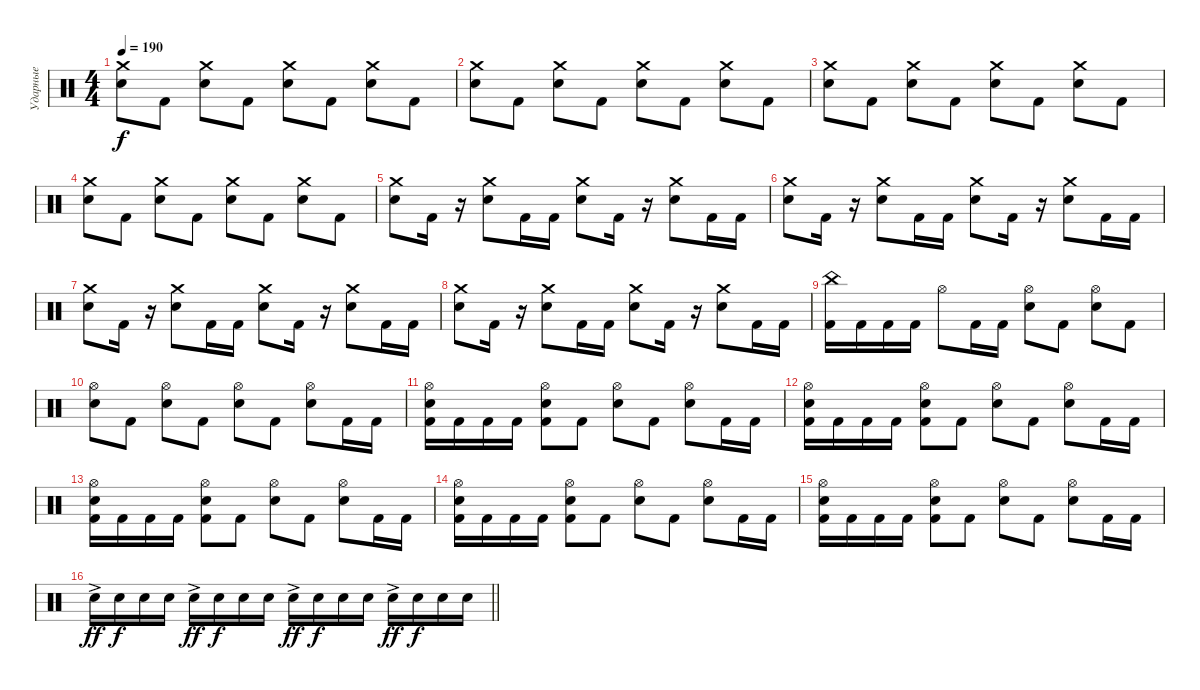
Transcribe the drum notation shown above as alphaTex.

\track ("Ударные" "Ударные") {instrument percussion}
\staff {score}
\articulation defaults
\ts (4 4)
\tempo 190
\clef neutral
\ks c
("Crash medium (hit)" "Snare (hit) 2").8{dy f} "Kick (hit) 2".8 ("Crash medium (hit)" "Snare (hit) 2").8 "Kick (hit) 2".8 ("Crash medium (hit)" "Snare (hit) 2").8 "Kick (hit) 2".8 ("Crash medium (hit)" "Snare (hit) 2").8 "Kick (hit) 2".8 |
("Crash medium (hit)" "Snare (hit) 2").8 "Kick (hit) 2".8 ("Crash medium (hit)" "Snare (hit) 2").8 "Kick (hit) 2".8 ("Crash medium (hit)" "Snare (hit) 2").8 "Kick (hit) 2".8 ("Crash medium (hit)" "Snare (hit) 2").8 "Kick (hit) 2".8 |
("Crash medium (hit)" "Snare (hit) 2").8 "Kick (hit) 2".8 ("Crash medium (hit)" "Snare (hit) 2").8 "Kick (hit) 2".8 ("Crash medium (hit)" "Snare (hit) 2").8 "Kick (hit) 2".8 ("Crash medium (hit)" "Snare (hit) 2").8 "Kick (hit) 2".8 |
("Crash medium (hit)" "Snare (hit) 2").8 "Kick (hit) 2".8 ("Crash medium (hit)" "Snare (hit) 2").8 "Kick (hit) 2".8 ("Crash medium (hit)" "Snare (hit) 2").8 "Kick (hit) 2".8 ("Crash medium (hit)" "Snare (hit) 2").8 "Kick (hit) 2".8 |
("Crash medium (hit)" "Snare (hit) 2").8 "Kick (hit) 2".16 r.16 ("Crash medium (hit)" "Snare (hit) 2").8 "Kick (hit) 2".16 "Kick (hit) 2".16 ("Crash medium (hit)" "Snare (hit) 2").8 "Kick (hit) 2".16 r.16 ("Crash medium (hit)" "Snare (hit) 2").8 "Kick (hit) 2".16 "Kick (hit) 2".16 |
("Crash medium (hit)" "Snare (hit) 2").8 "Kick (hit) 2".16 r.16 ("Crash medium (hit)" "Snare (hit) 2").8 "Kick (hit) 2".16 "Kick (hit) 2".16 ("Crash medium (hit)" "Snare (hit) 2").8 "Kick (hit) 2".16 r.16 ("Crash medium (hit)" "Snare (hit) 2").8 "Kick (hit) 2".16 "Kick (hit) 2".16 |
("Crash medium (hit)" "Snare (hit) 2").8 "Kick (hit) 2".16 r.16 ("Crash medium (hit)" "Snare (hit) 2").8 "Kick (hit) 2".16 "Kick (hit) 2".16 ("Crash medium (hit)" "Snare (hit) 2").8 "Kick (hit) 2".16 r.16 ("Crash medium (hit)" "Snare (hit) 2").8 "Kick (hit) 2".16 "Kick (hit) 2".16 |
("Crash medium (hit)" "Snare (hit) 2").8 "Kick (hit) 2".16 r.16 ("Crash medium (hit)" "Snare (hit) 2").8 "Kick (hit) 2".16 "Kick (hit) 2".16 ("Crash medium (hit)" "Snare (hit) 2").8 "Kick (hit) 2".16 r.16 ("Crash medium (hit)" "Snare (hit) 2").8 "Kick (hit) 2".16 "Kick (hit) 2".16 |
("China (hit)" "Kick (hit) 2").16 "Kick (hit) 2".16 "Kick (hit) 2".16 "Kick (hit) 2".16 "Hi-Hat (open)".8 "Kick (hit) 2".16 "Kick (hit) 2".16 ("Hi-Hat (open)" "Snare (hit) 2").8 "Kick (hit) 2".8 ("Hi-Hat (open)" "Snare (hit) 2").8 "Kick (hit) 2".8 |
("Hi-Hat (open)" "Snare (hit) 2").8 "Kick (hit) 2".8 ("Hi-Hat (open)" "Snare (hit) 2").8 "Kick (hit) 2".8 ("Hi-Hat (open)" "Snare (hit) 2").8 "Kick (hit) 2".8 ("Hi-Hat (open)" "Snare (hit) 2").8 "Kick (hit) 2".16 "Kick (hit) 2".16 |
("Hi-Hat (open)" "Snare (hit) 2" "Kick (hit) 2").16 "Kick (hit) 2".16 "Kick (hit) 2".16 "Kick (hit) 2".16 ("Hi-Hat (open)" "Snare (hit) 2" "Kick (hit) 2").8 "Kick (hit) 2".8 ("Hi-Hat (open)" "Snare (hit) 2").8 "Kick (hit) 2".8 ("Hi-Hat (open)" "Snare (hit) 2").8 "Kick (hit) 2".16 "Kick (hit) 2".16 |
("Hi-Hat (open)" "Snare (hit) 2" "Kick (hit) 2").16 "Kick (hit) 2".16 "Kick (hit) 2".16 "Kick (hit) 2".16 ("Hi-Hat (open)" "Snare (hit) 2" "Kick (hit) 2").8 "Kick (hit) 2".8 ("Hi-Hat (open)" "Snare (hit) 2").8 "Kick (hit) 2".8 ("Hi-Hat (open)" "Snare (hit) 2").8 "Kick (hit) 2".16 "Kick (hit) 2".16 |
("Hi-Hat (open)" "Snare (hit) 2" "Kick (hit) 2").16 "Kick (hit) 2".16 "Kick (hit) 2".16 "Kick (hit) 2".16 ("Hi-Hat (open)" "Snare (hit) 2" "Kick (hit) 2").8 "Kick (hit) 2".8 ("Hi-Hat (open)" "Snare (hit) 2").8 "Kick (hit) 2".8 ("Hi-Hat (open)" "Snare (hit) 2").8 "Kick (hit) 2".16 "Kick (hit) 2".16 |
("Hi-Hat (open)" "Snare (hit) 2" "Kick (hit) 2").16 "Kick (hit) 2".16 "Kick (hit) 2".16 "Kick (hit) 2".16 ("Hi-Hat (open)" "Snare (hit) 2" "Kick (hit) 2").8 "Kick (hit) 2".8 ("Hi-Hat (open)" "Snare (hit) 2").8 "Kick (hit) 2".8 ("Hi-Hat (open)" "Snare (hit) 2").8 "Kick (hit) 2".16 "Kick (hit) 2".16 |
("Hi-Hat (open)" "Snare (hit) 2" "Kick (hit) 2").16 "Kick (hit) 2".16 "Kick (hit) 2".16 "Kick (hit) 2".16 ("Hi-Hat (open)" "Snare (hit) 2" "Kick (hit) 2").8 "Kick (hit) 2".8 ("Hi-Hat (open)" "Snare (hit) 2").8 "Kick (hit) 2".8 ("Hi-Hat (open)" "Snare (hit) 2").8 "Kick (hit) 2".16 "Kick (hit) 2".16 |
\barLineRight lightlight "Snare (hit) 2"{ac}.16{dy ff} "Snare (hit) 2".16{dy f} "Snare (hit) 2".16 "Snare (hit) 2".16 "Snare (hit) 2"{ac}.16{dy ff} "Snare (hit) 2".16{dy f} "Snare (hit) 2".16 "Snare (hit) 2".16 "Snare (hit) 2"{ac}.16{dy ff} "Snare (hit) 2".16{dy f} "Snare (hit) 2".16 "Snare (hit) 2".16 "Snare (hit) 2"{ac}.16{dy ff} "Snare (hit) 2".16{dy f} "Snare (hit) 2".16 "Snare (hit) 2".16
